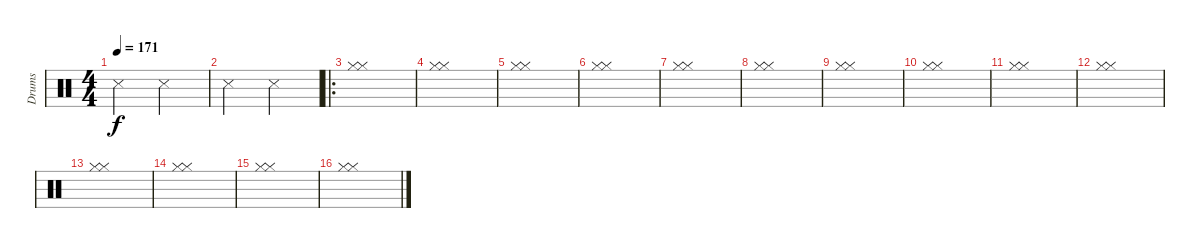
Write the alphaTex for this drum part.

\track ("Drums" "Drums") {instrument percussion}
\staff {score}
\articulation defaults
\ts (4 4)
\tempo 171
\clef neutral
\ks c "Snare (side stick) 3".2{dy f} "Snare (side stick) 3".2
|
"Snare (side stick) 3".2 "Snare (side stick) 3".2 |
\ro
("Hi-Hat (closed)" "Hi-Hat (closed)").1 |
("Hi-Hat (closed)" "Hi-Hat (closed)").1 |
("Hi-Hat (closed)" "Hi-Hat (closed)").1 |
("Hi-Hat (closed)" "Hi-Hat (closed)").1 |
("Hi-Hat (closed)" "Hi-Hat (closed)").1 |
("Hi-Hat (closed)" "Hi-Hat (closed)").1 |
("Hi-Hat (closed)" "Hi-Hat (closed)").1 |
("Hi-Hat (closed)" "Hi-Hat (closed)").1 |
("Hi-Hat (closed)" "Hi-Hat (closed)").1 |
("Hi-Hat (closed)" "Hi-Hat (closed)").1 |
("Hi-Hat (closed)" "Hi-Hat (closed)").1 |
("Hi-Hat (closed)" "Hi-Hat (closed)").1 |
("Hi-Hat (closed)" "Hi-Hat (closed)").1 |
("Hi-Hat (closed)" "Hi-Hat (closed)").1
